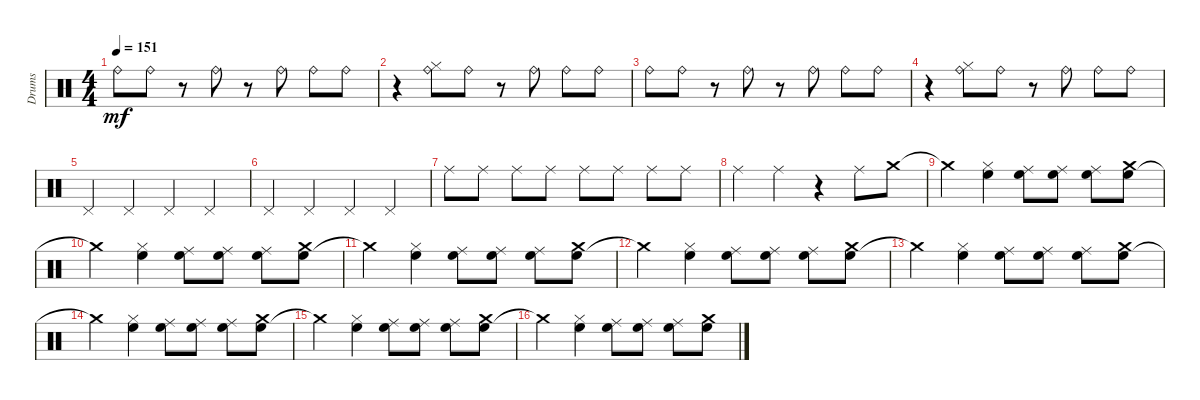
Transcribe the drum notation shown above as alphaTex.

\bracketExtendMode groupsimilarinstruments
\track ("Drumkit" "Drums") {instrument percussion}
\staff {score}
\articulation defaults
\ts (4 4)
\tempo 151
\clef neutral
\ks aminor "Ride (bell)".8{dy mf} "Ride (bell)".8
r.8 "Ride (bell)".8 r.8 "Ride (bell)".8 "Ride (bell)".8 "Ride (bell)".8 |
r.4 ("Ride (bell)" "Hi-Hat (closed)").8 "Ride (bell)".8 r.8 "Ride (bell)".8 "Ride (bell)".8 "Ride (bell)".8 |
"Ride (bell)".8 "Ride (bell)".8 r.8 "Ride (bell)".8 r.8 "Ride (bell)".8 "Ride (bell)".8 "Ride (bell)".8 |
r.4 ("Ride (bell)" "Hi-Hat (closed)").8 "Ride (bell)".8 r.8 "Ride (bell)".8 "Ride (bell)".8 "Ride (bell)".8 |
"Pedal Hi-Hat (hit)".4 "Pedal Hi-Hat (hit)".4 "Pedal Hi-Hat (hit)".4 "Pedal Hi-Hat (hit)".4 |
"Pedal Hi-Hat (hit)".4 "Pedal Hi-Hat (hit)".4 "Pedal Hi-Hat (hit)".4 "Pedal Hi-Hat (hit)".4 |
"Ride (middle)".8 "Ride (middle)".8 "Ride (middle)".8 "Ride (middle)".8 "Ride (middle)".8 "Ride (middle)".8 "Ride (middle)".8 "Ride (middle)".8 |
"Ride (middle)".4 "Ride (middle)".4 r.4 "Ride (middle)".8 "Crash medium (hit)".8 |
"Crash medium (hit)"{t}.4 ("High Floor Tom (hit)" "Hi-Hat (closed)").4 ("High Floor Tom (hit)" "Ride (middle)").8 ("High Floor Tom (hit)" "Ride (middle)").8 ("High Floor Tom (hit)" "Ride (middle)").8 ("High Floor Tom (hit)" "Crash medium (hit)").8 |
"Crash medium (hit)"{t}.4 ("High Floor Tom (hit)" "Hi-Hat (closed)").4 ("High Floor Tom (hit)" "Ride (middle)").8 ("High Floor Tom (hit)" "Ride (middle)").8 ("High Floor Tom (hit)" "Ride (middle)").8 ("High Floor Tom (hit)" "Crash medium (hit)").8 |
"Crash medium (hit)"{t}.4 ("High Floor Tom (hit)" "Hi-Hat (closed)").4 ("High Floor Tom (hit)" "Ride (middle)").8 ("High Floor Tom (hit)" "Ride (middle)").8 ("High Floor Tom (hit)" "Ride (middle)").8 ("High Floor Tom (hit)" "Crash medium (hit)").8 |
"Crash medium (hit)"{t}.4 ("High Floor Tom (hit)" "Hi-Hat (closed)").4 ("High Floor Tom (hit)" "Ride (middle)").8 ("High Floor Tom (hit)" "Ride (middle)").8 ("High Floor Tom (hit)" "Ride (middle)").8 ("High Floor Tom (hit)" "Crash medium (hit)").8 |
"Crash medium (hit)"{t}.4 ("High Floor Tom (hit)" "Hi-Hat (closed)").4 ("High Floor Tom (hit)" "Ride (middle)").8 ("High Floor Tom (hit)" "Ride (middle)").8 ("High Floor Tom (hit)" "Ride (middle)").8 ("High Floor Tom (hit)" "Crash medium (hit)").8 |
"Crash medium (hit)"{t}.4 ("High Floor Tom (hit)" "Hi-Hat (closed)").4 ("High Floor Tom (hit)" "Ride (middle)").8 ("High Floor Tom (hit)" "Ride (middle)").8 ("High Floor Tom (hit)" "Ride (middle)").8 ("High Floor Tom (hit)" "Crash medium (hit)").8 |
"Crash medium (hit)"{t}.4 ("High Floor Tom (hit)" "Hi-Hat (closed)").4 ("High Floor Tom (hit)" "Ride (middle)").8 ("High Floor Tom (hit)" "Ride (middle)").8 ("High Floor Tom (hit)" "Ride (middle)").8 ("High Floor Tom (hit)" "Crash medium (hit)").8 |
"Crash medium (hit)"{t}.4 ("High Floor Tom (hit)" "Hi-Hat (closed)").4 ("High Floor Tom (hit)" "Ride (middle)").8 ("High Floor Tom (hit)" "Ride (middle)").8 ("High Floor Tom (hit)" "Ride (middle)").8 ("High Floor Tom (hit)" "Crash medium (hit)").8
